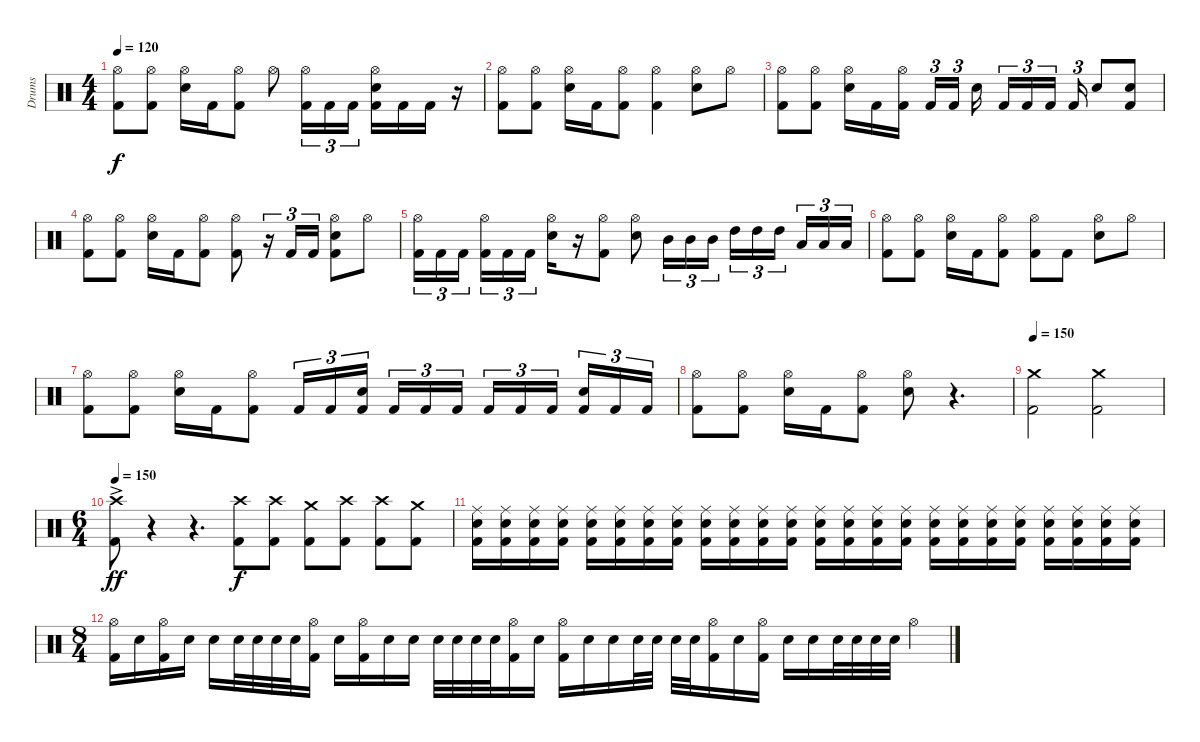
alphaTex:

\track ("Drums" "Drums") {instrument percussion}
\staff {score}
\articulation defaults
\ts (4 4)
\tempo 120
\clef neutral
\ks c
("Hi-Hat (open)" "Kick (hit) 2").8{dy f} ("Hi-Hat (open)" "Kick (hit) 2").8 ("Hi-Hat (open)" "Electric Snare (hit)").16 "Kick (hit) 2".16 ("Hi-Hat (open)" "Kick (hit) 2").8 "Hi-Hat (open)".8 ("Hi-Hat (open)" "Kick (hit) 2").16{tu (3 2)} "Kick (hit) 2".16{tu (3 2)} "Kick (hit) 2".16{tu (3 2)} ("Hi-Hat (open)" "Electric Snare (hit)" "Kick (hit) 2").16 "Kick (hit) 2".16 "Kick (hit) 2".16 r.16 |
("Hi-Hat (open)" "Kick (hit) 2").8 ("Hi-Hat (open)" "Kick (hit) 2").8 ("Hi-Hat (open)" "Electric Snare (hit)").16 "Kick (hit) 2".16 ("Hi-Hat (open)" "Kick (hit) 2").8 ("Hi-Hat (open)" "Kick (hit) 2").4 ("Hi-Hat (open)" "Electric Snare (hit)").8 "Hi-Hat (open)".8 |
("Hi-Hat (open)" "Kick (hit) 2").8 ("Hi-Hat (open)" "Kick (hit) 2").8 ("Hi-Hat (open)" "Electric Snare (hit)").16 "Kick (hit) 2".16 ("Hi-Hat (open)" "Kick (hit) 2").16{beam splitsecondary} "Kick (hit) 2".16{tu (3 2)} "Kick (hit) 2".16{tu (3 2)} "Electric Snare (hit)".16{beam splitsecondary} "Kick (hit) 2".16{tu (3 2)} "Kick (hit) 2".16{tu (3 2)} "Kick (hit) 2".16{tu (3 2) beam splitsecondary} "Kick (hit) 2".16{tu (3 2)} "Electric Snare (hit)".8 ("Electric Snare (hit)" "Kick (hit) 2").8 |
("Hi-Hat (open)" "Kick (hit) 2").8 ("Hi-Hat (open)" "Kick (hit) 2").8 ("Hi-Hat (open)" "Electric Snare (hit)").16 "Kick (hit) 2".16 ("Hi-Hat (open)" "Kick (hit) 2").8 ("Hi-Hat (open)" "Kick (hit) 2").8 r.16{tu (3 2)} "Kick (hit) 2".16{tu (3 2)} "Kick (hit) 2".16{tu (3 2)} ("Hi-Hat (open)" "Electric Snare (hit)" "Kick (hit) 2").8 "Hi-Hat (open)".8 |
("Hi-Hat (open)" "Kick (hit) 2").16{tu (3 2)} "Kick (hit) 2".16{tu (3 2)} "Kick (hit) 2".16{tu (3 2) beam splitsecondary} ("Hi-Hat (open)" "Kick (hit) 2").16{tu (3 2)} "Kick (hit) 2".16{tu (3 2)} "Kick (hit) 2".16{tu (3 2)} ("Hi-Hat (open)" "Electric Snare (hit)").16 r.16 ("Hi-Hat (open)" "Kick (hit) 2").8 ("Hi-Hat (open)" "Electric Snare (hit)").8 "Mid Tom (hit)".16{tu (3 2)} "Mid Tom (hit)".16{tu (3 2)} "Mid Tom (hit)".16{tu (3 2)} "High Tom (hit)".16{tu (3 2)} "High Tom (hit)".16{tu (3 2)} "High Tom (hit)".16{tu (3 2) beam splitsecondary} "Low Tom (hit)".16{tu (3 2)} "Low Tom (hit)".16{tu (3 2)} "Low Tom (hit)".16{tu (3 2)} |
("Hi-Hat (open)" "Kick (hit) 2").8 ("Hi-Hat (open)" "Kick (hit) 2").8 ("Hi-Hat (open)" "Electric Snare (hit)").16 "Kick (hit) 2".16 ("Hi-Hat (open)" "Kick (hit) 2").8 ("Hi-Hat (open)" "Kick (hit) 2").8 "Kick (hit) 2".8 ("Hi-Hat (open)" "Electric Snare (hit)").8 "Hi-Hat (open)".8 |
("Hi-Hat (open)" "Kick (hit) 2").8 ("Hi-Hat (open)" "Kick (hit) 2").8 ("Hi-Hat (open)" "Electric Snare (hit)").16 "Kick (hit) 2".16 ("Hi-Hat (open)" "Kick (hit) 2").8 "Kick (hit) 2".16{tu (3 2)} "Kick (hit) 2".16{tu (3 2)} ("Electric Snare (hit)" "Kick (hit) 2").16{tu (3 2) beam splitsecondary} "Kick (hit) 2".16{tu (3 2)} "Kick (hit) 2".16{tu (3 2)} "Kick (hit) 2".16{tu (3 2)} "Kick (hit) 2".16{tu (3 2)} "Kick (hit) 2".16{tu (3 2)} "Kick (hit) 2".16{tu (3 2) beam splitsecondary} ("Electric Snare (hit)" "Kick (hit) 2").16{tu (3 2)} "Kick (hit) 2".16{tu (3 2)} "Kick (hit) 2".16{tu (3 2)} |
("Hi-Hat (open)" "Kick (hit) 2").8 ("Hi-Hat (open)" "Kick (hit) 2").8 ("Hi-Hat (open)" "Electric Snare (hit)").16 "Kick (hit) 2".16 ("Hi-Hat (open)" "Kick (hit) 2").8 ("Hi-Hat (open)" "Electric Snare (hit)").8 r.4{d} |
\tempo 150
("Crash medium (hit)" "Kick (hit) 2").2 ("Crash medium (hit)" "Kick (hit) 2").2 |
\ts (6 4)
\tempo 150
("Crash high (hit)"{ac} "Kick (hit) 2").8{dy ff} r.4 r.4{d} ("Crash high (hit)" "Kick (hit) 2").8{dy f} ("Crash high (hit)" "Kick (hit) 2").8 ("Crash medium (hit)" "Kick (hit) 2").8 ("Crash high (hit)" "Kick (hit) 2").8 ("Crash high (hit)" "Kick (hit) 2").8 ("Crash medium (hit)" "Kick (hit) 2").8 |
("Ride (middle)" "Electric Snare (hit)" "Kick (hit) 2").16 ("Ride (middle)" "Electric Snare (hit)" "Kick (hit) 2").16 ("Ride (middle)" "Electric Snare (hit)" "Kick (hit) 2").16 ("Ride (middle)" "Electric Snare (hit)" "Kick (hit) 2").16 ("Ride (middle)" "Electric Snare (hit)" "Kick (hit) 2").16 ("Ride (middle)" "Electric Snare (hit)" "Kick (hit) 2").16 ("Ride (middle)" "Electric Snare (hit)" "Kick (hit) 2").16 ("Ride (middle)" "Electric Snare (hit)" "Kick (hit) 2").16 ("Ride (middle)" "Electric Snare (hit)" "Kick (hit) 2").16 ("Ride (middle)" "Electric Snare (hit)" "Kick (hit) 2").16 ("Ride (middle)" "Electric Snare (hit)" "Kick (hit) 2").16 ("Ride (middle)" "Electric Snare (hit)" "Kick (hit) 2").16 ("Ride (middle)" "Electric Snare (hit)" "Kick (hit) 2").16 ("Ride (middle)" "Electric Snare (hit)" "Kick (hit) 2").16 ("Ride (middle)" "Electric Snare (hit)" "Kick (hit) 2").16 ("Ride (middle)" "Electric Snare (hit)" "Kick (hit) 2").16 ("Ride (middle)" "Electric Snare (hit)" "Kick (hit) 2").16 ("Ride (middle)" "Electric Snare (hit)" "Kick (hit) 2").16 ("Ride (middle)" "Electric Snare (hit)" "Kick (hit) 2").16 ("Ride (middle)" "Electric Snare (hit)" "Kick (hit) 2").16 ("Ride (middle)" "Electric Snare (hit)" "Kick (hit) 2").16 ("Ride (middle)" "Electric Snare (hit)" "Kick (hit) 2").16 ("Ride (middle)" "Electric Snare (hit)" "Kick (hit) 2").16 ("Ride (middle)" "Electric Snare (hit)" "Kick (hit) 2").16 |
\ts (8 4)
("Hi-Hat (open)" "Kick (hit) 2").16 "Electric Snare (hit)".16 ("Hi-Hat (open)" "Kick (hit) 2").16 "Electric Snare (hit)".16 "Electric Snare (hit)".16 "Electric Snare (hit)".32 "Electric Snare (hit)".32 "Electric Snare (hit)".32 "Electric Snare (hit)".32 ("Hi-Hat (open)" "Kick (hit) 2").16 "Electric Snare (hit)".16 ("Hi-Hat (open)" "Kick (hit) 2").16 "Electric Snare (hit)".16 "Electric Snare (hit)".16 "Electric Snare (hit)".32 "Electric Snare (hit)".32 "Electric Snare (hit)".32 "Electric Snare (hit)".32 ("Hi-Hat (open)" "Kick (hit) 2").16 "Electric Snare (hit)".16 ("Hi-Hat (open)" "Kick (hit) 2").16 "Electric Snare (hit)".16 "Electric Snare (hit)".16 "Electric Snare (hit)".32 "Electric Snare (hit)".32 "Electric Snare (hit)".32 "Electric Snare (hit)".32 ("Hi-Hat (open)" "Kick (hit) 2").16 "Electric Snare (hit)".16 ("Hi-Hat (open)" "Kick (hit) 2").16 "Electric Snare (hit)".16 "Electric Snare (hit)".16 "Electric Snare (hit)".32 "Electric Snare (hit)".32 "Electric Snare (hit)".32 "Electric Snare (hit)".32 "Hi-Hat (open)".4
